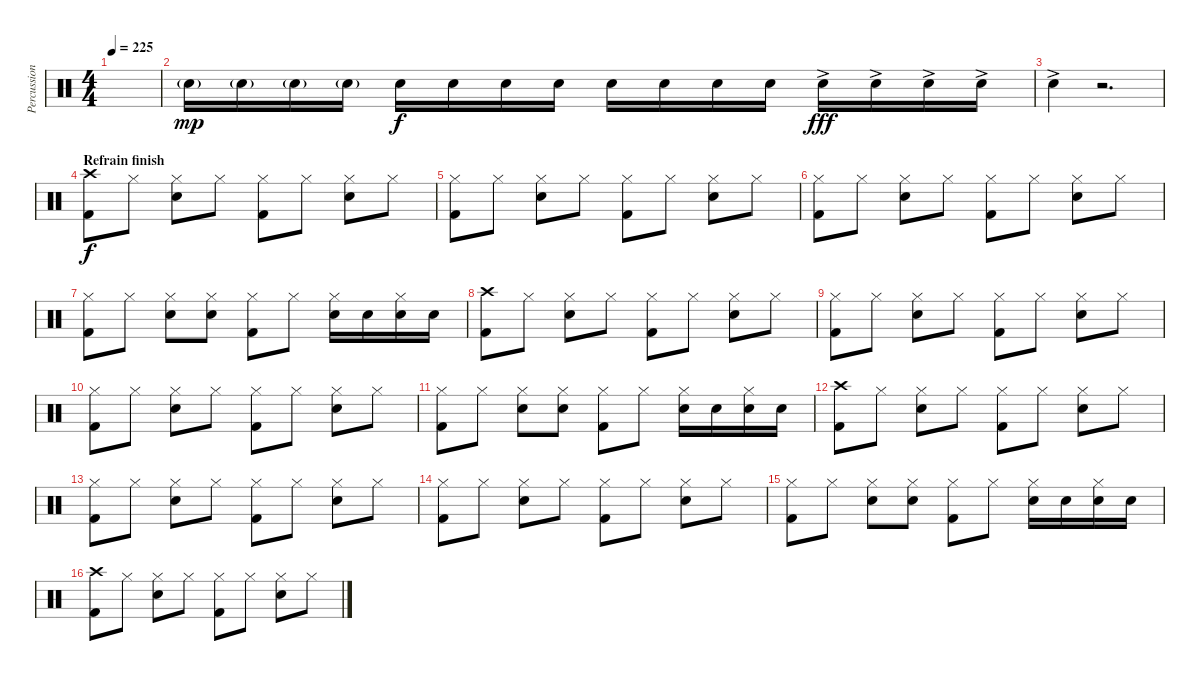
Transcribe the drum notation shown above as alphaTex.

\track ("Percussions" "Percussion") {instrument percussion}
\staff {score}
\articulation defaults
\ts (4 4)
\tempo 225
\clef neutral
\ks c
|
"Snare (hit) 2"{g}.16{dy mp} "Snare (hit) 2"{g}.16 "Snare (hit) 2"{g}.16 "Snare (hit) 2"{g}.16 "Snare (hit) 2".16{dy f} "Snare (hit) 2".16 "Snare (hit) 2".16 "Snare (hit) 2".16 "Snare (hit) 2".16 "Snare (hit) 2".16 "Snare (hit) 2".16 "Snare (hit) 2".16 "Snare (hit) 2"{ac}.16{dy fff} "Snare (hit) 2"{ac}.16 "Snare (hit) 2"{ac}.16 "Snare (hit) 2"{ac}.16 |
"Snare (hit) 2"{ac}.4 r.2{d} |
\section ("" "Refrain finish")
("Crash high (hit)" "Kick (hit) 2").8{dy f} "Hi-Hat (closed)".8 ("Hi-Hat (closed)" "Snare (hit) 2").8 "Hi-Hat (closed)".8 ("Hi-Hat (closed)" "Kick (hit) 2").8 "Hi-Hat (closed)".8 ("Hi-Hat (closed)" "Snare (hit) 2").8 "Hi-Hat (closed)".8 |
("Hi-Hat (closed)" "Kick (hit) 2").8 "Hi-Hat (closed)".8 ("Hi-Hat (closed)" "Snare (hit) 2").8 "Hi-Hat (closed)".8 ("Hi-Hat (closed)" "Kick (hit) 2").8 "Hi-Hat (closed)".8 ("Hi-Hat (closed)" "Snare (hit) 2").8 "Hi-Hat (closed)".8 |
("Hi-Hat (closed)" "Kick (hit) 2").8 "Hi-Hat (closed)".8 ("Hi-Hat (closed)" "Snare (hit) 2").8 "Hi-Hat (closed)".8 ("Hi-Hat (closed)" "Kick (hit) 2").8 "Hi-Hat (closed)".8 ("Hi-Hat (closed)" "Snare (hit) 2").8 "Hi-Hat (closed)".8 |
("Hi-Hat (closed)" "Kick (hit) 2").8 "Hi-Hat (closed)".8 ("Hi-Hat (closed)" "Snare (hit) 2").8 ("Hi-Hat (closed)" "Snare (hit) 2").8 ("Hi-Hat (closed)" "Kick (hit) 2").8 "Hi-Hat (closed)".8 ("Hi-Hat (closed)" "Snare (hit) 2").16 "Snare (hit) 2".16 ("Hi-Hat (closed)" "Snare (hit) 2").16 "Snare (hit) 2".16 |
("Crash high (hit)" "Kick (hit) 2").8 "Hi-Hat (closed)".8 ("Hi-Hat (closed)" "Snare (hit) 2").8 "Hi-Hat (closed)".8 ("Hi-Hat (closed)" "Kick (hit) 2").8 "Hi-Hat (closed)".8 ("Hi-Hat (closed)" "Snare (hit) 2").8 "Hi-Hat (closed)".8 |
("Hi-Hat (closed)" "Kick (hit) 2").8 "Hi-Hat (closed)".8 ("Hi-Hat (closed)" "Snare (hit) 2").8 "Hi-Hat (closed)".8 ("Hi-Hat (closed)" "Kick (hit) 2").8 "Hi-Hat (closed)".8 ("Hi-Hat (closed)" "Snare (hit) 2").8 "Hi-Hat (closed)".8 |
("Hi-Hat (closed)" "Kick (hit) 2").8 "Hi-Hat (closed)".8 ("Hi-Hat (closed)" "Snare (hit) 2").8 "Hi-Hat (closed)".8 ("Hi-Hat (closed)" "Kick (hit) 2").8 "Hi-Hat (closed)".8 ("Hi-Hat (closed)" "Snare (hit) 2").8 "Hi-Hat (closed)".8 |
("Hi-Hat (closed)" "Kick (hit) 2").8 "Hi-Hat (closed)".8 ("Hi-Hat (closed)" "Snare (hit) 2").8 ("Hi-Hat (closed)" "Snare (hit) 2").8 ("Hi-Hat (closed)" "Kick (hit) 2").8 "Hi-Hat (closed)".8 ("Hi-Hat (closed)" "Snare (hit) 2").16 "Snare (hit) 2".16 ("Hi-Hat (closed)" "Snare (hit) 2").16 "Snare (hit) 2".16 |
("Crash high (hit)" "Kick (hit) 2").8 "Hi-Hat (closed)".8 ("Hi-Hat (closed)" "Snare (hit) 2").8 "Hi-Hat (closed)".8 ("Hi-Hat (closed)" "Kick (hit) 2").8 "Hi-Hat (closed)".8 ("Hi-Hat (closed)" "Snare (hit) 2").8 "Hi-Hat (closed)".8 |
("Hi-Hat (closed)" "Kick (hit) 2").8 "Hi-Hat (closed)".8 ("Hi-Hat (closed)" "Snare (hit) 2").8 "Hi-Hat (closed)".8 ("Hi-Hat (closed)" "Kick (hit) 2").8 "Hi-Hat (closed)".8 ("Hi-Hat (closed)" "Snare (hit) 2").8 "Hi-Hat (closed)".8 |
("Hi-Hat (closed)" "Kick (hit) 2").8 "Hi-Hat (closed)".8 ("Hi-Hat (closed)" "Snare (hit) 2").8 "Hi-Hat (closed)".8 ("Hi-Hat (closed)" "Kick (hit) 2").8 "Hi-Hat (closed)".8 ("Hi-Hat (closed)" "Snare (hit) 2").8 "Hi-Hat (closed)".8 |
("Hi-Hat (closed)" "Kick (hit) 2").8 "Hi-Hat (closed)".8 ("Hi-Hat (closed)" "Snare (hit) 2").8 ("Hi-Hat (closed)" "Snare (hit) 2").8 ("Hi-Hat (closed)" "Kick (hit) 2").8 "Hi-Hat (closed)".8 ("Hi-Hat (closed)" "Snare (hit) 2").16 "Snare (hit) 2".16 ("Hi-Hat (closed)" "Snare (hit) 2").16 "Snare (hit) 2".16 |
("Crash high (hit)" "Kick (hit) 2").8 "Hi-Hat (closed)".8 ("Hi-Hat (closed)" "Snare (hit) 2").8 "Hi-Hat (closed)".8 ("Hi-Hat (closed)" "Kick (hit) 2").8 "Hi-Hat (closed)".8 ("Hi-Hat (closed)" "Snare (hit) 2").8 "Hi-Hat (closed)".8
